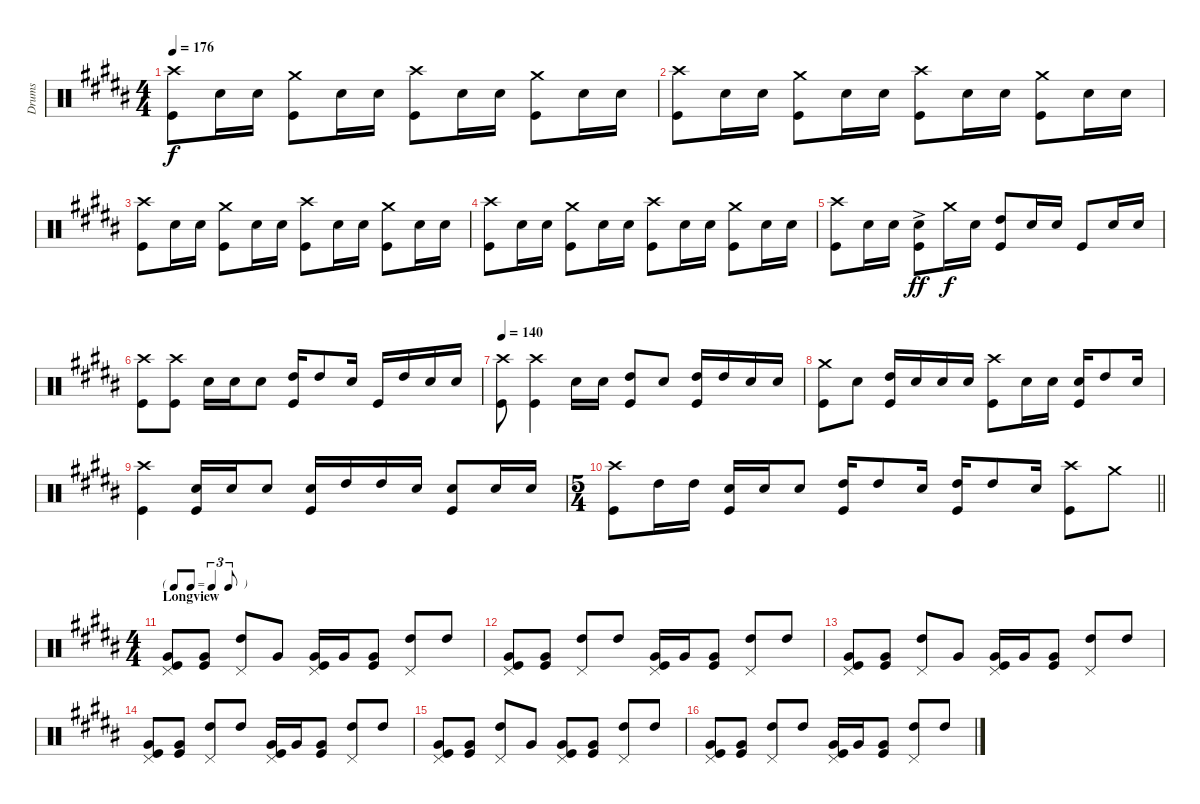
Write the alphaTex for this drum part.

\track ("Drums" "Drums") {instrument percussion}
\staff {score}
\articulation defaults
\ts (4 4)
\tempo 176
\clef neutral
\ks b
("Kick (hit)" "Crash high (hit)").8{dy f} "Snare (hit) 2".16 "Snare (hit) 2".16 ("Kick (hit)" "Crash medium (hit)").8 "Snare (hit) 2".16 "Snare (hit) 2".16 ("Kick (hit)" "Crash high (hit)").8 "Snare (hit) 2".16 "Snare (hit) 2".16 ("Kick (hit)" "Crash medium (hit)").8 "Snare (hit) 2".16 "Snare (hit) 2".16 |
("Kick (hit)" "Crash high (hit)").8 "Snare (hit) 2".16 "Snare (hit) 2".16 ("Kick (hit)" "Crash medium (hit)").8 "Snare (hit) 2".16 "Snare (hit) 2".16 ("Kick (hit)" "Crash high (hit)").8 "Snare (hit) 2".16 "Snare (hit) 2".16 ("Kick (hit)" "Crash medium (hit)").8 "Snare (hit) 2".16 "Snare (hit) 2".16 |
("Kick (hit)" "Crash high (hit)").8 "Snare (hit) 2".16 "Snare (hit) 2".16 ("Kick (hit)" "Crash medium (hit)").8 "Snare (hit) 2".16 "Snare (hit) 2".16 ("Kick (hit)" "Crash high (hit)").8 "Snare (hit) 2".16 "Snare (hit) 2".16 ("Kick (hit)" "Crash medium (hit)").8 "Snare (hit) 2".16 "Snare (hit) 2".16 |
("Kick (hit)" "Crash high (hit)").8 "Snare (hit) 2".16 "Snare (hit) 2".16 ("Kick (hit)" "Crash medium (hit)").8 "Snare (hit) 2".16 "Snare (hit) 2".16 ("Kick (hit)" "Crash high (hit)").8 "Snare (hit) 2".16 "Snare (hit) 2".16 ("Kick (hit)" "Crash medium (hit)").8 "Snare (hit) 2".16 "Snare (hit) 2".16 |
("Kick (hit)" "Crash high (hit)").8 "Snare (hit) 2".16 "Snare (hit) 2".16 ("Kick (hit)" "Snare (hit) 2"{ac}).8{dy ff} "Crash medium (hit)".16{dy f} "Snare (hit) 2".16 ("Kick (hit)" "High Tom (hit)").8 "Snare (hit) 2".16 "Snare (hit) 2".16 "Kick (hit)".8 "Snare (hit) 2".16 "Snare (hit) 2".16 |
("Kick (hit)" "Crash high (hit)").8 ("Kick (hit)" "Crash high (hit)").8 "Snare (hit) 2".16 "Snare (hit) 2".16 "Snare (hit) 2".8 ("Kick (hit)" "High Tom (hit)").16 "High Tom (hit)".8 "Snare (hit) 2".16 "Kick (hit)".16 "High Tom (hit)".16 "Snare (hit) 2".16 "Snare (hit) 2".16 |
\tempo 140
("Kick (hit)" "Crash high (hit)").8 ("Kick (hit)" "Crash high (hit)").4 "Snare (hit) 2".16 "Snare (hit) 2".16 ("Kick (hit)" "High Tom (hit)").8 "Snare (hit) 2".8 ("Kick (hit)" "High Tom (hit)").16 "High Tom (hit)".16 "Snare (hit) 2".16 "Snare (hit) 2".16 |
("Kick (hit)" "Crash medium (hit)").8 "Snare (hit) 2".8 ("Kick (hit)" "High Tom (hit)").16 "Snare (hit) 2".16 "Snare (hit) 2".16 "Snare (hit) 2".16 ("Kick (hit)" "Crash high (hit)").8 "Snare (hit) 2".16 "Snare (hit) 2".16 ("Snare (hit) 2" "Kick (hit)").16 "High Tom (hit)".8 "Snare (hit) 2".16 |
("Kick (hit)" "Crash high (hit)").4 ("Kick (hit)" "Snare (hit) 2").16 "Snare (hit) 2".16 "Snare (hit) 2".8 ("Kick (hit)" "Snare (hit) 2").16 "High Tom (hit)".16 "High Tom (hit)".16 "Snare (hit) 2".16 ("Snare (hit) 2" "Kick (hit)").8 "Snare (hit) 2".16 "Snare (hit) 2".16 |
\ts (5 4)
\barLineRight lightlight
("Kick (hit)" "Crash high (hit)").8 "High Tom (hit)".16 "High Tom (hit)".16 ("Snare (hit) 2" "Kick (hit)").16 "Snare (hit) 2".16 "Snare (hit) 2".8 ("Kick (hit)" "High Tom (hit)").16 "High Tom (hit)".8 "Snare (hit) 2".16 ("Kick (hit)" "High Tom (hit)").16 "High Tom (hit)".8 "Snare (hit) 2".16 ("Kick (hit)" "Crash high (hit)").8 "Crash medium (hit)".8 |
\ts (4 4)
\tf triplet8th
\section ("" "Longview")
("Kick (hit)" "Very Low Tom (hit)" "Pedal Hi-Hat (hit)").8 ("Kick (hit)" "Very Low Tom (hit)").8 ("High Tom (hit)" "Pedal Hi-Hat (hit)").8 "Very Low Tom (hit)".8 ("Very Low Tom (hit)" "Kick (hit)" "Pedal Hi-Hat (hit)").16 "Very Low Tom (hit)".16 ("Very Low Tom (hit)" "Kick (hit)").8 ("High Tom (hit)" "Pedal Hi-Hat (hit)").8 "High Tom (hit)".8 |
("Kick (hit)" "Very Low Tom (hit)" "Pedal Hi-Hat (hit)").8 ("Kick (hit)" "Very Low Tom (hit)").8 ("High Tom (hit)" "Pedal Hi-Hat (hit)").8 "High Tom (hit)".8 ("Very Low Tom (hit)" "Kick (hit)" "Pedal Hi-Hat (hit)").16 "Very Low Tom (hit)".16 ("Very Low Tom (hit)" "Kick (hit)").8 ("High Tom (hit)" "Pedal Hi-Hat (hit)").8 "High Tom (hit)".8 |
("Kick (hit)" "Very Low Tom (hit)" "Pedal Hi-Hat (hit)").8 ("Kick (hit)" "Very Low Tom (hit)").8 ("High Tom (hit)" "Pedal Hi-Hat (hit)").8 "Very Low Tom (hit)".8 ("Very Low Tom (hit)" "Kick (hit)" "Pedal Hi-Hat (hit)").16 "Very Low Tom (hit)".16 ("Very Low Tom (hit)" "Kick (hit)").8 ("High Tom (hit)" "Pedal Hi-Hat (hit)").8 "High Tom (hit)".8 |
("Kick (hit)" "Very Low Tom (hit)" "Pedal Hi-Hat (hit)").8 ("Kick (hit)" "Very Low Tom (hit)").8 ("High Tom (hit)" "Pedal Hi-Hat (hit)").8 "High Tom (hit)".8 ("Very Low Tom (hit)" "Kick (hit)" "Pedal Hi-Hat (hit)").16 "Very Low Tom (hit)".16 ("Very Low Tom (hit)" "Kick (hit)").8 ("High Tom (hit)" "Pedal Hi-Hat (hit)").8 "High Tom (hit)".8 |
("Kick (hit)" "Very Low Tom (hit)" "Pedal Hi-Hat (hit)").8 ("Kick (hit)" "Very Low Tom (hit)").8 ("High Tom (hit)" "Pedal Hi-Hat (hit)").8 "Very Low Tom (hit)".8 ("Very Low Tom (hit)" "Kick (hit)" "Pedal Hi-Hat (hit)").8 ("Very Low Tom (hit)" "Kick (hit)").8 ("High Tom (hit)" "Pedal Hi-Hat (hit)").8 "High Tom (hit)".8 |
("Kick (hit)" "Very Low Tom (hit)" "Pedal Hi-Hat (hit)").8 ("Kick (hit)" "Very Low Tom (hit)").8 ("High Tom (hit)" "Pedal Hi-Hat (hit)").8 "High Tom (hit)".8 ("Very Low Tom (hit)" "Kick (hit)" "Pedal Hi-Hat (hit)").16 "Very Low Tom (hit)".16 ("Very Low Tom (hit)" "Kick (hit)").8 ("High Tom (hit)" "Pedal Hi-Hat (hit)").8 "High Tom (hit)".8
